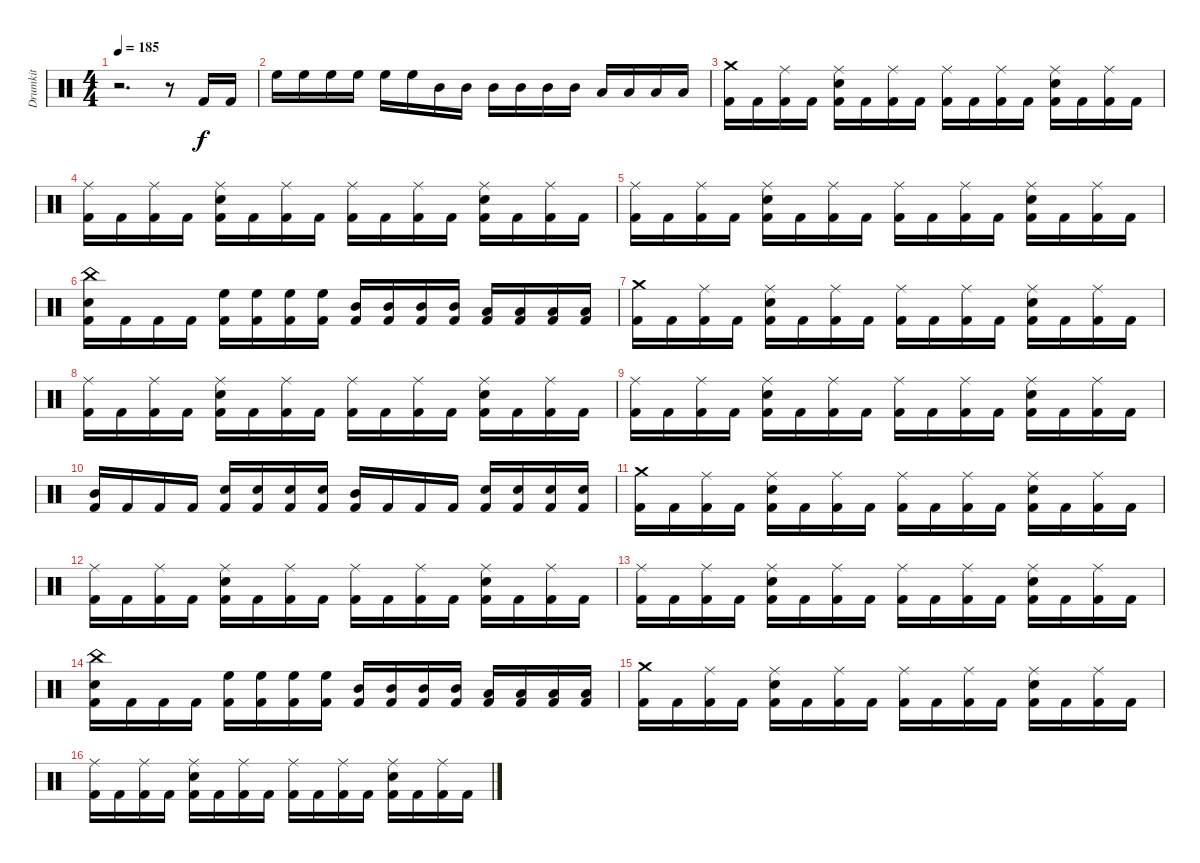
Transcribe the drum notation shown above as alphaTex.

\track ("Drumkit" "Drumkit") {instrument percussion}
\staff {score}
\articulation defaults
\ts (4 4)
\tempo 185
\clef neutral
\ks c
r.2{d dy f} r.8 "Kick (hit) 2".16 "Kick (hit) 2".16 |
"High Floor Tom (hit)".16 "High Floor Tom (hit)".16 "High Floor Tom (hit)".16 "High Floor Tom (hit)".16 "High Floor Tom (hit)".16 "High Floor Tom (hit)".16 "Mid Tom (hit)".16 "Mid Tom (hit)".16 "Mid Tom (hit)".16 "Mid Tom (hit)".16 "Mid Tom (hit)".16 "Mid Tom (hit)".16 "Low Tom (hit)".16 "Low Tom (hit)".16 "Low Tom (hit)".16 "Low Tom (hit)".16 |
("Crash medium (hit)" "Kick (hit) 2").16 "Kick (hit) 2".16 ("Ride (middle)" "Kick (hit) 2").16 "Kick (hit) 2".16 ("Ride (middle)" "Snare (hit) 2" "Kick (hit) 2").16 "Kick (hit) 2".16 ("Ride (middle)" "Kick (hit) 2").16 "Kick (hit) 2".16 ("Ride (middle)" "Kick (hit) 2").16 "Kick (hit) 2".16 ("Ride (middle)" "Kick (hit) 2").16 "Kick (hit) 2".16 ("Ride (middle)" "Snare (hit) 2" "Kick (hit) 2").16 "Kick (hit) 2".16 ("Ride (middle)" "Kick (hit) 2").16 "Kick (hit) 2".16 |
("Ride (middle)" "Kick (hit) 2").16 "Kick (hit) 2".16 ("Ride (middle)" "Kick (hit) 2").16 "Kick (hit) 2".16 ("Ride (middle)" "Snare (hit) 2" "Kick (hit) 2").16 "Kick (hit) 2".16 ("Ride (middle)" "Kick (hit) 2").16 "Kick (hit) 2".16 ("Ride (middle)" "Kick (hit) 2").16 "Kick (hit) 2".16 ("Ride (middle)" "Kick (hit) 2").16 "Kick (hit) 2".16 ("Ride (middle)" "Snare (hit) 2" "Kick (hit) 2").16 "Kick (hit) 2".16 ("Ride (middle)" "Kick (hit) 2").16 "Kick (hit) 2".16 |
("Ride (middle)" "Kick (hit) 2").16 "Kick (hit) 2".16 ("Ride (middle)" "Kick (hit) 2").16 "Kick (hit) 2".16 ("Ride (middle)" "Snare (hit) 2" "Kick (hit) 2").16 "Kick (hit) 2".16 ("Ride (middle)" "Kick (hit) 2").16 "Kick (hit) 2".16 ("Ride (middle)" "Kick (hit) 2").16 "Kick (hit) 2".16 ("Ride (middle)" "Kick (hit) 2").16 "Kick (hit) 2".16 ("Ride (middle)" "Snare (hit) 2" "Kick (hit) 2").16 "Kick (hit) 2".16 ("Ride (middle)" "Kick (hit) 2").16 "Kick (hit) 2".16 |
("China (hit)" "Snare (hit) 2" "Kick (hit) 2").16 "Kick (hit) 2".16 "Kick (hit) 2".16 "Kick (hit) 2".16 ("High Floor Tom (hit)" "Kick (hit) 2").16 ("High Floor Tom (hit)" "Kick (hit) 2").16 ("High Floor Tom (hit)" "Kick (hit) 2").16 ("High Floor Tom (hit)" "Kick (hit) 2").16 ("Mid Tom (hit)" "Kick (hit) 2").16 ("Mid Tom (hit)" "Kick (hit) 2").16 ("Mid Tom (hit)" "Kick (hit) 2").16 ("Mid Tom (hit)" "Kick (hit) 2").16 ("Low Tom (hit)" "Kick (hit) 2").16 ("Low Tom (hit)" "Kick (hit) 2").16 ("Low Tom (hit)" "Kick (hit) 2").16 ("Low Tom (hit)" "Kick (hit) 2").16 |
("Crash medium (hit)" "Kick (hit) 2").16 "Kick (hit) 2".16 ("Ride (middle)" "Kick (hit) 2").16 "Kick (hit) 2".16 ("Ride (middle)" "Snare (hit) 2" "Kick (hit) 2").16 "Kick (hit) 2".16 ("Ride (middle)" "Kick (hit) 2").16 "Kick (hit) 2".16 ("Ride (middle)" "Kick (hit) 2").16 "Kick (hit) 2".16 ("Ride (middle)" "Kick (hit) 2").16 "Kick (hit) 2".16 ("Ride (middle)" "Snare (hit) 2" "Kick (hit) 2").16 "Kick (hit) 2".16 ("Ride (middle)" "Kick (hit) 2").16 "Kick (hit) 2".16 |
("Ride (middle)" "Kick (hit) 2").16 "Kick (hit) 2".16 ("Ride (middle)" "Kick (hit) 2").16 "Kick (hit) 2".16 ("Ride (middle)" "Snare (hit) 2" "Kick (hit) 2").16 "Kick (hit) 2".16 ("Ride (middle)" "Kick (hit) 2").16 "Kick (hit) 2".16 ("Ride (middle)" "Kick (hit) 2").16 "Kick (hit) 2".16 ("Ride (middle)" "Kick (hit) 2").16 "Kick (hit) 2".16 ("Ride (middle)" "Snare (hit) 2" "Kick (hit) 2").16 "Kick (hit) 2".16 ("Ride (middle)" "Kick (hit) 2").16 "Kick (hit) 2".16 |
("Ride (middle)" "Kick (hit) 2").16 "Kick (hit) 2".16 ("Ride (middle)" "Kick (hit) 2").16 "Kick (hit) 2".16 ("Ride (middle)" "Snare (hit) 2" "Kick (hit) 2").16 "Kick (hit) 2".16 ("Ride (middle)" "Kick (hit) 2").16 "Kick (hit) 2".16 ("Ride (middle)" "Kick (hit) 2").16 "Kick (hit) 2".16 ("Ride (middle)" "Kick (hit) 2").16 "Kick (hit) 2".16 ("Ride (middle)" "Snare (hit) 2" "Kick (hit) 2").16 "Kick (hit) 2".16 ("Ride (middle)" "Kick (hit) 2").16 "Kick (hit) 2".16 |
("Mid Tom (hit)" "Kick (hit) 2").16 "Kick (hit) 2".16 "Kick (hit) 2".16 "Kick (hit) 2".16 ("Snare (hit) 2" "Kick (hit) 2").16 ("Snare (hit) 2" "Kick (hit) 2").16 ("Snare (hit) 2" "Kick (hit) 2").16 ("Snare (hit) 2" "Kick (hit) 2").16 ("Mid Tom (hit)" "Kick (hit) 2").16 "Kick (hit) 2".16 "Kick (hit) 2".16 "Kick (hit) 2".16 ("Snare (hit) 2" "Kick (hit) 2").16 ("Snare (hit) 2" "Kick (hit) 2").16 ("Snare (hit) 2" "Kick (hit) 2").16 ("Snare (hit) 2" "Kick (hit) 2").16 |
("Crash medium (hit)" "Kick (hit) 2").16 "Kick (hit) 2".16 ("Ride (middle)" "Kick (hit) 2").16 "Kick (hit) 2".16 ("Ride (middle)" "Snare (hit) 2" "Kick (hit) 2").16 "Kick (hit) 2".16 ("Ride (middle)" "Kick (hit) 2").16 "Kick (hit) 2".16 ("Ride (middle)" "Kick (hit) 2").16 "Kick (hit) 2".16 ("Ride (middle)" "Kick (hit) 2").16 "Kick (hit) 2".16 ("Ride (middle)" "Snare (hit) 2" "Kick (hit) 2").16 "Kick (hit) 2".16 ("Ride (middle)" "Kick (hit) 2").16 "Kick (hit) 2".16 |
("Ride (middle)" "Kick (hit) 2").16 "Kick (hit) 2".16 ("Ride (middle)" "Kick (hit) 2").16 "Kick (hit) 2".16 ("Ride (middle)" "Snare (hit) 2" "Kick (hit) 2").16 "Kick (hit) 2".16 ("Ride (middle)" "Kick (hit) 2").16 "Kick (hit) 2".16 ("Ride (middle)" "Kick (hit) 2").16 "Kick (hit) 2".16 ("Ride (middle)" "Kick (hit) 2").16 "Kick (hit) 2".16 ("Ride (middle)" "Snare (hit) 2" "Kick (hit) 2").16 "Kick (hit) 2".16 ("Ride (middle)" "Kick (hit) 2").16 "Kick (hit) 2".16 |
("Ride (middle)" "Kick (hit) 2").16 "Kick (hit) 2".16 ("Ride (middle)" "Kick (hit) 2").16 "Kick (hit) 2".16 ("Ride (middle)" "Snare (hit) 2" "Kick (hit) 2").16 "Kick (hit) 2".16 ("Ride (middle)" "Kick (hit) 2").16 "Kick (hit) 2".16 ("Ride (middle)" "Kick (hit) 2").16 "Kick (hit) 2".16 ("Ride (middle)" "Kick (hit) 2").16 "Kick (hit) 2".16 ("Ride (middle)" "Snare (hit) 2" "Kick (hit) 2").16 "Kick (hit) 2".16 ("Ride (middle)" "Kick (hit) 2").16 "Kick (hit) 2".16 |
("China (hit)" "Snare (hit) 2" "Kick (hit) 2").16 "Kick (hit) 2".16 "Kick (hit) 2".16 "Kick (hit) 2".16 ("High Floor Tom (hit)" "Kick (hit) 2").16 ("High Floor Tom (hit)" "Kick (hit) 2").16 ("High Floor Tom (hit)" "Kick (hit) 2").16 ("High Floor Tom (hit)" "Kick (hit) 2").16 ("Mid Tom (hit)" "Kick (hit) 2").16 ("Mid Tom (hit)" "Kick (hit) 2").16 ("Mid Tom (hit)" "Kick (hit) 2").16 ("Mid Tom (hit)" "Kick (hit) 2").16 ("Low Tom (hit)" "Kick (hit) 2").16 ("Low Tom (hit)" "Kick (hit) 2").16 ("Low Tom (hit)" "Kick (hit) 2").16 ("Low Tom (hit)" "Kick (hit) 2").16 |
("Crash medium (hit)" "Kick (hit) 2").16 "Kick (hit) 2".16 ("Ride (middle)" "Kick (hit) 2").16 "Kick (hit) 2".16 ("Ride (middle)" "Snare (hit) 2" "Kick (hit) 2").16 "Kick (hit) 2".16 ("Ride (middle)" "Kick (hit) 2").16 "Kick (hit) 2".16 ("Ride (middle)" "Kick (hit) 2").16 "Kick (hit) 2".16 ("Ride (middle)" "Kick (hit) 2").16 "Kick (hit) 2".16 ("Ride (middle)" "Snare (hit) 2" "Kick (hit) 2").16 "Kick (hit) 2".16 ("Ride (middle)" "Kick (hit) 2").16 "Kick (hit) 2".16 |
("Ride (middle)" "Kick (hit) 2").16 "Kick (hit) 2".16 ("Ride (middle)" "Kick (hit) 2").16 "Kick (hit) 2".16 ("Ride (middle)" "Snare (hit) 2" "Kick (hit) 2").16 "Kick (hit) 2".16 ("Ride (middle)" "Kick (hit) 2").16 "Kick (hit) 2".16 ("Ride (middle)" "Kick (hit) 2").16 "Kick (hit) 2".16 ("Ride (middle)" "Kick (hit) 2").16 "Kick (hit) 2".16 ("Ride (middle)" "Snare (hit) 2" "Kick (hit) 2").16 "Kick (hit) 2".16 ("Ride (middle)" "Kick (hit) 2").16 "Kick (hit) 2".16
